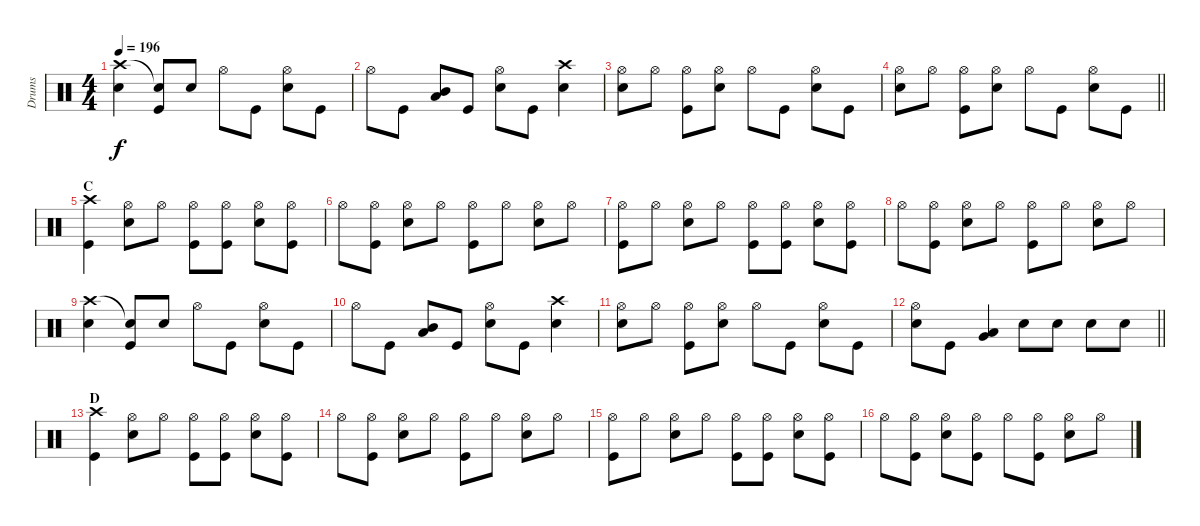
\track ("Drums" "Drums") {instrument percussion}
\staff {score}
\articulation defaults
\ts (4 4)
\tempo 196
\clef neutral
\ks c
("Crash high (hit)" "Electric Snare (hit)").4{dy f} ("Snare (hit)"{t} "Kick (hit)").8 "Electric Snare (hit)".8 "Hi-Hat (open)".8 "Kick (hit)".8 ("Hi-Hat (open)" "Electric Snare (hit)").8 "Kick (hit)".8 |
"Hi-Hat (open)".8 "Kick (hit)".8 ("Mid Tom (hit)" "Low Tom (hit)").8 "Kick (hit)".8 ("Hi-Hat (open)" "Electric Snare (hit)").8 "Kick (hit)".8 ("Crash high (hit)" "Electric Snare (hit)").4 |
("Hi-Hat (open)" "Electric Snare (hit)").8 "Hi-Hat (open)".8 ("Hi-Hat (open)" "Kick (hit)").8 ("Hi-Hat (open)" "Electric Snare (hit)").8 "Hi-Hat (open)".8 "Kick (hit)".8 ("Hi-Hat (open)" "Electric Snare (hit)").8 "Kick (hit)".8 |
\barLineRight lightlight
("Hi-Hat (open)" "Electric Snare (hit)").8 "Hi-Hat (open)".8 ("Hi-Hat (open)" "Kick (hit)").8 ("Hi-Hat (open)" "Electric Snare (hit)").8 "Hi-Hat (open)".8 "Kick (hit)".8 ("Hi-Hat (open)" "Electric Snare (hit)").8 "Kick (hit)".8 |
\section ("" "C")
("Crash high (hit)" "Kick (hit)").4 ("Hi-Hat (open)" "Electric Snare (hit)").8 "Hi-Hat (open)".8 ("Hi-Hat (open)" "Kick (hit)").8 ("Hi-Hat (open)" "Kick (hit)").8 ("Hi-Hat (open)" "Electric Snare (hit)").8 ("Hi-Hat (open)" "Kick (hit)").8 |
"Hi-Hat (open)".8 ("Hi-Hat (open)" "Kick (hit)").8 ("Hi-Hat (open)" "Electric Snare (hit)").8 "Hi-Hat (open)".8 ("Hi-Hat (open)" "Kick (hit)").8 "Hi-Hat (open)".8 ("Hi-Hat (open)" "Electric Snare (hit)").8 "Hi-Hat (open)".8 |
("Hi-Hat (open)" "Kick (hit)").8 "Hi-Hat (open)".8 ("Hi-Hat (open)" "Electric Snare (hit)").8 "Hi-Hat (open)".8 ("Hi-Hat (open)" "Kick (hit)").8 ("Hi-Hat (open)" "Kick (hit)").8 ("Hi-Hat (open)" "Electric Snare (hit)").8 ("Hi-Hat (open)" "Kick (hit)").8 |
"Hi-Hat (open)".8 ("Hi-Hat (open)" "Kick (hit)").8 ("Hi-Hat (open)" "Electric Snare (hit)").8 "Hi-Hat (open)".8 ("Hi-Hat (open)" "Kick (hit)").8 "Hi-Hat (open)".8 ("Hi-Hat (open)" "Electric Snare (hit)").8 "Hi-Hat (open)".8 |
("Crash high (hit)" "Electric Snare (hit)").4 ("Snare (hit)"{t} "Kick (hit)").8 "Electric Snare (hit)".8 "Hi-Hat (open)".8 "Kick (hit)".8 ("Hi-Hat (open)" "Electric Snare (hit)").8 "Kick (hit)".8 |
"Hi-Hat (open)".8 "Kick (hit)".8 ("Mid Tom (hit)" "Low Tom (hit)").8 "Kick (hit)".8 ("Hi-Hat (open)" "Electric Snare (hit)").8 "Kick (hit)".8 ("Crash high (hit)" "Electric Snare (hit)").4 |
("Hi-Hat (open)" "Electric Snare (hit)").8 "Hi-Hat (open)".8 ("Hi-Hat (open)" "Kick (hit)").8 ("Hi-Hat (open)" "Electric Snare (hit)").8 "Hi-Hat (open)".8 "Kick (hit)".8 ("Hi-Hat (open)" "Electric Snare (hit)").8 "Kick (hit)".8 |
\barLineRight lightlight
("Hi-Hat (open)" "Electric Snare (hit)").8 "Kick (hit)".8 ("Low Tom (hit)" "Very Low Tom (hit)").4 "Electric Snare (hit)".8 "Electric Snare (hit)".8 "Electric Snare (hit)".8 "Electric Snare (hit)".8 |
\section ("" "D")
("Crash high (hit)" "Kick (hit)").4 ("Hi-Hat (open)" "Electric Snare (hit)").8 "Hi-Hat (open)".8 ("Hi-Hat (open)" "Kick (hit)").8 ("Hi-Hat (open)" "Kick (hit)").8 ("Hi-Hat (open)" "Electric Snare (hit)").8 ("Hi-Hat (open)" "Kick (hit)").8 |
"Hi-Hat (open)".8 ("Hi-Hat (open)" "Kick (hit)").8 ("Hi-Hat (open)" "Electric Snare (hit)").8 "Hi-Hat (open)".8 ("Hi-Hat (open)" "Kick (hit)").8 "Hi-Hat (open)".8 ("Hi-Hat (open)" "Electric Snare (hit)").8 "Hi-Hat (open)".8 |
("Hi-Hat (open)" "Kick (hit)").8 "Hi-Hat (open)".8 ("Hi-Hat (open)" "Electric Snare (hit)").8 "Hi-Hat (open)".8 ("Hi-Hat (open)" "Kick (hit)").8 ("Hi-Hat (open)" "Kick (hit)").8 ("Hi-Hat (open)" "Electric Snare (hit)").8 ("Hi-Hat (open)" "Kick (hit)").8 |
"Hi-Hat (open)".8 ("Hi-Hat (open)" "Kick (hit)").8 ("Hi-Hat (open)" "Electric Snare (hit)").8 ("Hi-Hat (open)" "Kick (hit)").8 "Hi-Hat (open)".8 ("Hi-Hat (open)" "Kick (hit)").8 ("Hi-Hat (open)" "Electric Snare (hit)").8 "Hi-Hat (open)".8
